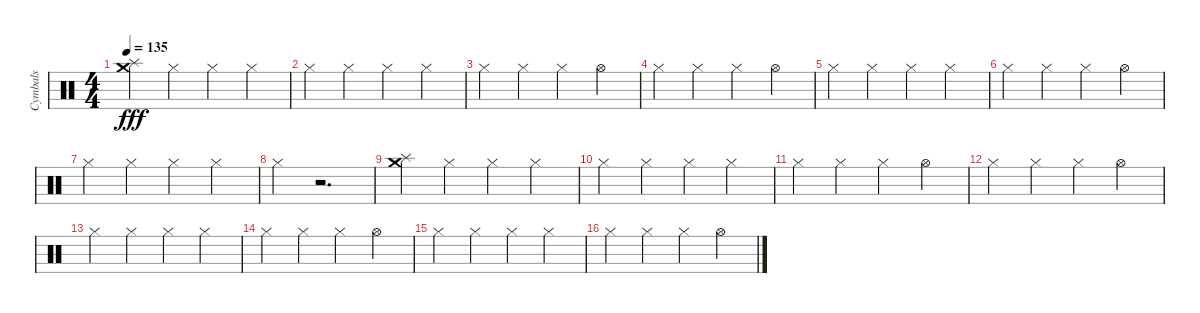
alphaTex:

\track ("Cymbals" "Cymbals") {instrument percussion}
\staff {score}
\articulation defaults
\ts (4 4)
\tempo 135
\clef neutral
\ks c
("Crash medium (hit)" "Splash (hit)").4{dy fff} "Hi-Hat (closed)".4 "Hi-Hat (closed)".4 "Hi-Hat (closed)".4 |
"Hi-Hat (closed)".4 "Hi-Hat (closed)".4 "Hi-Hat (closed)".4 "Hi-Hat (closed)".4 |
"Hi-Hat (closed)".4 "Hi-Hat (closed)".4 "Hi-Hat (closed)".4 "Hi-Hat (open)".4 |
"Hi-Hat (closed)".4 "Hi-Hat (closed)".4 "Hi-Hat (closed)".4 "Hi-Hat (open)".4 |
"Hi-Hat (closed)".4 "Hi-Hat (closed)".4 "Hi-Hat (closed)".4 "Hi-Hat (closed)".4 |
"Hi-Hat (closed)".4 "Hi-Hat (closed)".4 "Hi-Hat (closed)".4 "Hi-Hat (open)".4 |
"Hi-Hat (closed)".4 "Hi-Hat (closed)".4 "Hi-Hat (closed)".4 "Hi-Hat (closed)".4 |
"Hi-Hat (closed)".4 r.2{d} |
("Crash medium (hit)" "Splash (hit)").4 "Hi-Hat (closed)".4 "Hi-Hat (closed)".4 "Hi-Hat (closed)".4 |
"Hi-Hat (closed)".4 "Hi-Hat (closed)".4 "Hi-Hat (closed)".4 "Hi-Hat (closed)".4 |
"Hi-Hat (closed)".4 "Hi-Hat (closed)".4 "Hi-Hat (closed)".4 "Hi-Hat (open)".4 |
"Hi-Hat (closed)".4 "Hi-Hat (closed)".4 "Hi-Hat (closed)".4 "Hi-Hat (open)".4 |
"Hi-Hat (closed)".4 "Hi-Hat (closed)".4 "Hi-Hat (closed)".4 "Hi-Hat (closed)".4 |
"Hi-Hat (closed)".4 "Hi-Hat (closed)".4 "Hi-Hat (closed)".4 "Hi-Hat (open)".4 |
"Hi-Hat (closed)".4 "Hi-Hat (closed)".4 "Hi-Hat (closed)".4 "Hi-Hat (closed)".4 |
"Hi-Hat (closed)".4 "Hi-Hat (closed)".4 "Hi-Hat (closed)".4 "Hi-Hat (open)".4
